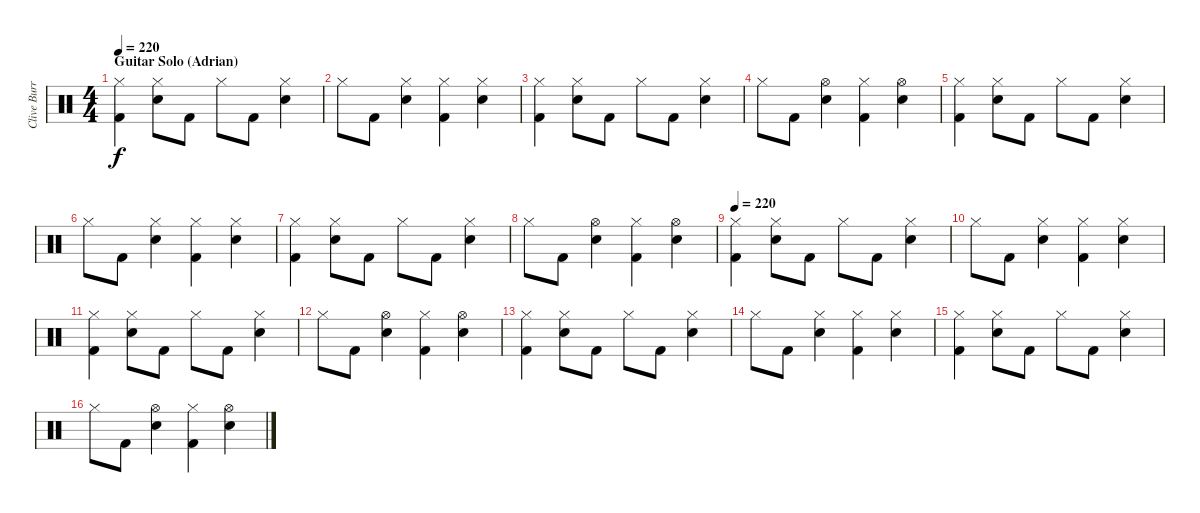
\track ("Clive Burr (Drums)" "Clive Burr") {instrument percussion}
\staff {score}
\articulation defaults
\ts (4 4)
\section ("" "Guitar Solo (Adrian)")
\tempo 220
\clef neutral
\ks c
("Hi-Hat (closed)" "Kick (hit) 2").4{dy f} ("Electric Snare (hit)" "Hi-Hat (closed)").8 "Kick (hit) 2".8 "Hi-Hat (closed)".8 "Kick (hit) 2".8 ("Electric Snare (hit)" "Hi-Hat (closed)").4 |
"Hi-Hat (closed)".8 "Kick (hit) 2".8 ("Electric Snare (hit)" "Hi-Hat (closed)").4 ("Hi-Hat (closed)" "Kick (hit) 2").4 ("Electric Snare (hit)" "Hi-Hat (closed)").4 |
("Hi-Hat (closed)" "Kick (hit) 2").4 ("Electric Snare (hit)" "Hi-Hat (closed)").8 "Kick (hit) 2".8 "Hi-Hat (closed)".8 "Kick (hit) 2".8 ("Electric Snare (hit)" "Hi-Hat (closed)").4 |
"Hi-Hat (closed)".8 "Kick (hit) 2".8 ("Electric Snare (hit)" "Hi-Hat (open)").4 ("Hi-Hat (closed)" "Kick (hit) 2").4 ("Electric Snare (hit)" "Hi-Hat (open)").4 |
("Hi-Hat (closed)" "Kick (hit) 2").4 ("Electric Snare (hit)" "Hi-Hat (closed)").8 "Kick (hit) 2".8 "Hi-Hat (closed)".8 "Kick (hit) 2".8 ("Electric Snare (hit)" "Hi-Hat (closed)").4 |
"Hi-Hat (closed)".8 "Kick (hit) 2".8 ("Electric Snare (hit)" "Hi-Hat (closed)").4 ("Hi-Hat (closed)" "Kick (hit) 2").4 ("Electric Snare (hit)" "Hi-Hat (closed)").4 |
("Hi-Hat (closed)" "Kick (hit) 2").4 ("Electric Snare (hit)" "Hi-Hat (closed)").8 "Kick (hit) 2".8 "Hi-Hat (closed)".8 "Kick (hit) 2".8 ("Electric Snare (hit)" "Hi-Hat (closed)").4 |
"Hi-Hat (closed)".8 "Kick (hit) 2".8 ("Electric Snare (hit)" "Hi-Hat (open)").4 ("Hi-Hat (closed)" "Kick (hit) 2").4 ("Electric Snare (hit)" "Hi-Hat (open)").4 |
\tempo 220
("Hi-Hat (closed)" "Kick (hit) 2").4 ("Electric Snare (hit)" "Hi-Hat (closed)").8 "Kick (hit) 2".8 "Hi-Hat (closed)".8 "Kick (hit) 2".8 ("Electric Snare (hit)" "Hi-Hat (closed)").4 |
"Hi-Hat (closed)".8 "Kick (hit) 2".8 ("Electric Snare (hit)" "Hi-Hat (closed)").4 ("Hi-Hat (closed)" "Kick (hit) 2").4 ("Electric Snare (hit)" "Hi-Hat (closed)").4 |
("Hi-Hat (closed)" "Kick (hit) 2").4 ("Electric Snare (hit)" "Hi-Hat (closed)").8 "Kick (hit) 2".8 "Hi-Hat (closed)".8 "Kick (hit) 2".8 ("Electric Snare (hit)" "Hi-Hat (closed)").4 |
"Hi-Hat (closed)".8 "Kick (hit) 2".8 ("Electric Snare (hit)" "Hi-Hat (open)").4 ("Hi-Hat (closed)" "Kick (hit) 2").4 ("Electric Snare (hit)" "Hi-Hat (open)").4 |
("Hi-Hat (closed)" "Kick (hit) 2").4 ("Electric Snare (hit)" "Hi-Hat (closed)").8 "Kick (hit) 2".8 "Hi-Hat (closed)".8 "Kick (hit) 2".8 ("Electric Snare (hit)" "Hi-Hat (closed)").4 |
"Hi-Hat (closed)".8 "Kick (hit) 2".8 ("Electric Snare (hit)" "Hi-Hat (closed)").4 ("Hi-Hat (closed)" "Kick (hit) 2").4 ("Electric Snare (hit)" "Hi-Hat (closed)").4 |
("Hi-Hat (closed)" "Kick (hit) 2").4 ("Electric Snare (hit)" "Hi-Hat (closed)").8 "Kick (hit) 2".8 "Hi-Hat (closed)".8 "Kick (hit) 2".8 ("Electric Snare (hit)" "Hi-Hat (closed)").4 |
"Hi-Hat (closed)".8 "Kick (hit) 2".8 ("Electric Snare (hit)" "Hi-Hat (open)").4 ("Hi-Hat (closed)" "Kick (hit) 2").4 ("Electric Snare (hit)" "Hi-Hat (open)").4
